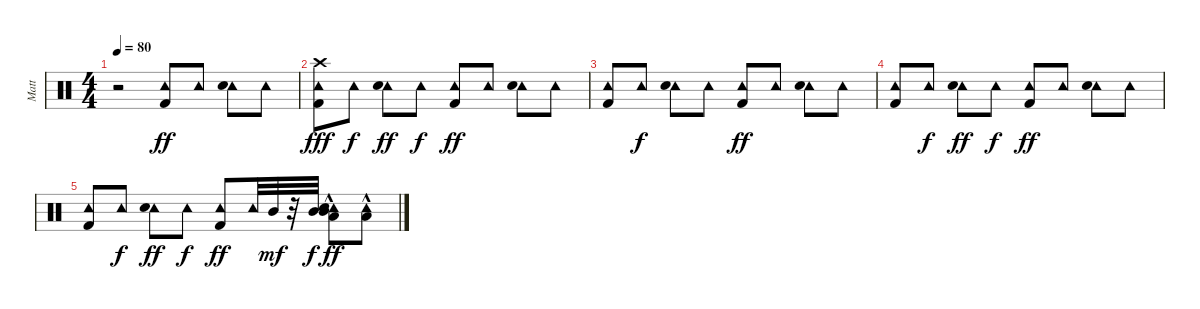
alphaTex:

\track ("Matt" "Matt") {instrument percussion}
\staff {score}
\articulation defaults
\ts (4 4)
\tempo 80
\clef neutral
\ks c
r.2{dy ff} ("Kick (hit) 2" "Tambourine (hit)").8{volume 8} "Tambourine (hit)".8 ("Tambourine (hit)" "Electric Snare (hit)").8 "Tambourine (hit)".8 |
("Kick (hit) 2" "Crash high (hit)" "Tambourine (hit)").8{dy fff volume 13} "Tambourine (hit)".8{dy f} ("Tambourine (hit)" "Electric Snare (hit)").8{dy ff} "Tambourine (hit)".8{dy f} ("Kick (hit) 2" "Tambourine (hit)").8{dy ff} "Tambourine (hit)".8 ("Tambourine (hit)" "Electric Snare (hit)").8 "Tambourine (hit)".8 |
("Kick (hit) 2" "Tambourine (hit)").8 "Tambourine (hit)".8{dy f} ("Tambourine (hit)" "Electric Snare (hit)").8 "Tambourine (hit)".8 ("Kick (hit) 2" "Tambourine (hit)").8{dy ff} "Tambourine (hit)".8 ("Tambourine (hit)" "Electric Snare (hit)").8 "Tambourine (hit)".8 |
("Kick (hit) 2" "Tambourine (hit)").8 "Tambourine (hit)".8{dy f} ("Tambourine (hit)" "Electric Snare (hit)").8{dy ff} "Tambourine (hit)".8{dy f} ("Kick (hit) 2" "Tambourine (hit)").8{dy ff} "Tambourine (hit)".8 ("Tambourine (hit)" "Electric Snare (hit)").8 "Tambourine (hit)".8 |
("Kick (hit) 2" "Tambourine (hit)").8 "Tambourine (hit)".8{dy f} ("Tambourine (hit)" "Electric Snare (hit)").8{dy ff} "Tambourine (hit)".8{dy f} ("Kick (hit) 2" "Tambourine (hit)").8{dy ff} "Tambourine (hit)".32 "Mid Tom (hit)".32{dy mf} r.32 "Mid Tom (hit)".32{dy f} ("Mid Tom (hit)" "Low Tom (hit)"{hac} "Tambourine (hit)" "Electric Snare (hit)").8{dy ff} ("Low Tom (hit)"{hac} "Tambourine (hit)").8
